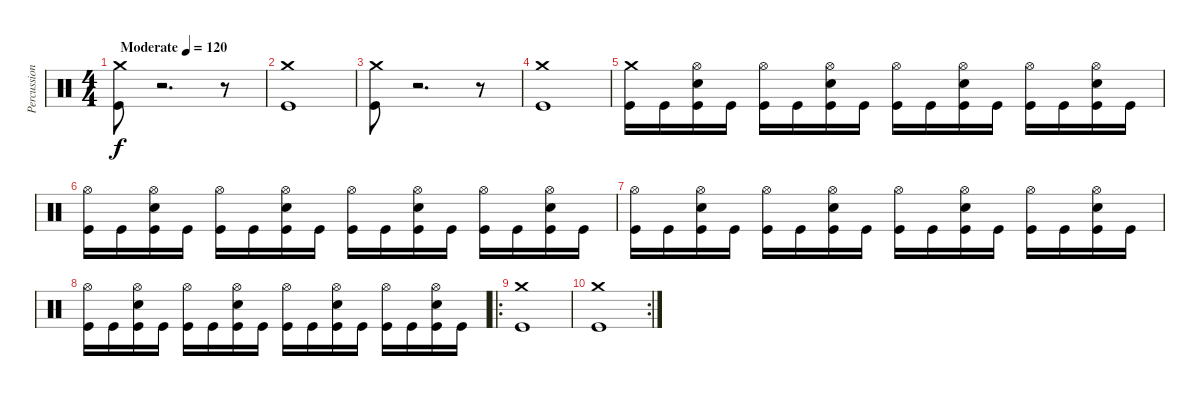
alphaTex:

\track ("Percussion" "Percussion") {instrument percussion}
\staff {score}
\articulation defaults
\ts (4 4)
\tempo (120 "Moderate")
\clef neutral
\ks c
("Crash medium (hit)" "Kick (hit)").8{dy f} r.2{d volume 0} r.8 |
("Crash medium (hit)" "Kick (hit)").1{volume 13} |
("Crash medium (hit)" "Kick (hit)").8 r.2{d volume 0} r.8 |
("Crash medium (hit)" "Kick (hit)").1{volume 13} |
("Crash medium (hit)" "Kick (hit)").16 "Kick (hit)".16 ("Hi-Hat (open)" "Snare (hit) 2" "Kick (hit)").16 "Kick (hit)".16 ("Hi-Hat (open)" "Kick (hit)").16 "Kick (hit)".16 ("Hi-Hat (open)" "Snare (hit) 2" "Kick (hit)").16 "Kick (hit)".16 ("Hi-Hat (open)" "Kick (hit)").16 "Kick (hit)".16 ("Hi-Hat (open)" "Snare (hit) 2" "Kick (hit)").16 "Kick (hit)".16 ("Hi-Hat (open)" "Kick (hit)").16 "Kick (hit)".16 ("Hi-Hat (open)" "Snare (hit) 2" "Kick (hit)").16 "Kick (hit)".16 |
("Hi-Hat (open)" "Kick (hit)").16 "Kick (hit)".16 ("Hi-Hat (open)" "Snare (hit) 2" "Kick (hit)").16 "Kick (hit)".16 ("Hi-Hat (open)" "Kick (hit)").16 "Kick (hit)".16 ("Hi-Hat (open)" "Snare (hit) 2" "Kick (hit)").16 "Kick (hit)".16 ("Hi-Hat (open)" "Kick (hit)").16 "Kick (hit)".16 ("Hi-Hat (open)" "Snare (hit) 2" "Kick (hit)").16 "Kick (hit)".16 ("Hi-Hat (open)" "Kick (hit)").16 "Kick (hit)".16 ("Hi-Hat (open)" "Snare (hit) 2" "Kick (hit)").16 "Kick (hit)".16 |
("Hi-Hat (open)" "Kick (hit)").16 "Kick (hit)".16 ("Hi-Hat (open)" "Snare (hit) 2" "Kick (hit)").16 "Kick (hit)".16 ("Hi-Hat (open)" "Kick (hit)").16 "Kick (hit)".16 ("Hi-Hat (open)" "Snare (hit) 2" "Kick (hit)").16 "Kick (hit)".16 ("Hi-Hat (open)" "Kick (hit)").16 "Kick (hit)".16 ("Hi-Hat (open)" "Snare (hit) 2" "Kick (hit)").16 "Kick (hit)".16 ("Hi-Hat (open)" "Kick (hit)").16 "Kick (hit)".16 ("Hi-Hat (open)" "Snare (hit) 2" "Kick (hit)").16 "Kick (hit)".16 |
("Hi-Hat (open)" "Kick (hit)").16 "Kick (hit)".16 ("Hi-Hat (open)" "Snare (hit) 2" "Kick (hit)").16 "Kick (hit)".16 ("Hi-Hat (open)" "Kick (hit)").16 "Kick (hit)".16 ("Hi-Hat (open)" "Snare (hit) 2" "Kick (hit)").16 "Kick (hit)".16 ("Hi-Hat (open)" "Kick (hit)").16 "Kick (hit)".16 ("Hi-Hat (open)" "Snare (hit) 2" "Kick (hit)").16 "Kick (hit)".16 ("Hi-Hat (open)" "Kick (hit)").16 "Kick (hit)".16 ("Hi-Hat (open)" "Snare (hit) 2" "Kick (hit)").16 "Kick (hit)".16 |
\ro
("Crash medium (hit)" "Kick (hit)").1 |
\rc 2
("Crash medium (hit)" "Kick (hit)").1
